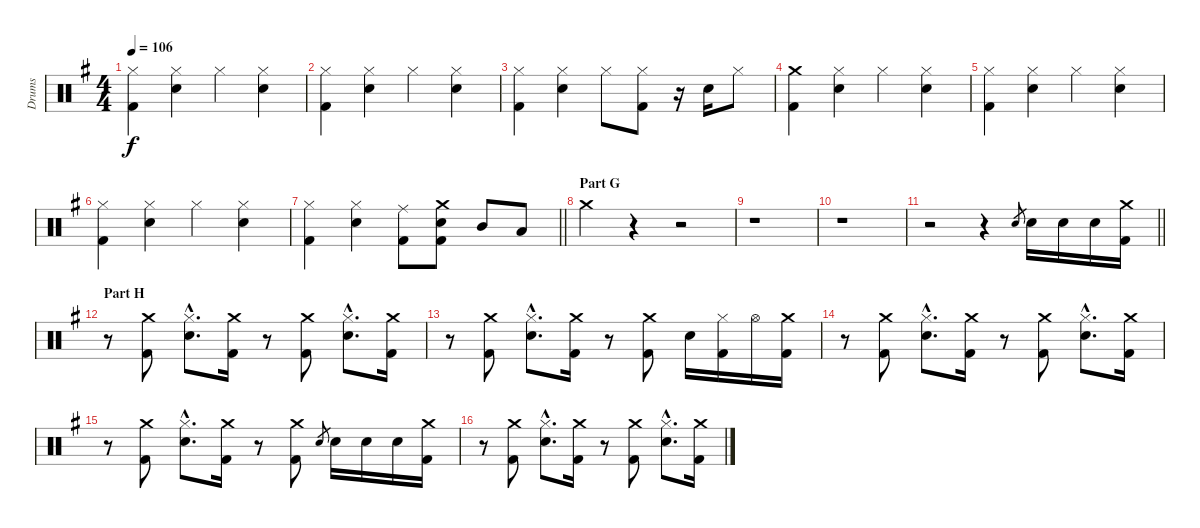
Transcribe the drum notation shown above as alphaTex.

\track ("Drums" "Drums") {instrument percussion}
\staff {score}
\articulation defaults
\ts (4 4)
\tempo 106
\clef neutral
\ks g
("Hi-Hat (closed)" "Kick (hit) 2").4{dy f} ("Hi-Hat (closed)" "Electric Snare (hit)").4 "Hi-Hat (closed)".4 ("Hi-Hat (closed)" "Electric Snare (hit)").4 |
("Hi-Hat (closed)" "Kick (hit) 2").4 ("Hi-Hat (closed)" "Electric Snare (hit)").4 "Hi-Hat (closed)".4 ("Hi-Hat (closed)" "Electric Snare (hit)").4 |
("Hi-Hat (closed)" "Kick (hit) 2").4 ("Hi-Hat (closed)" "Electric Snare (hit)").4 "Hi-Hat (closed)".8 ("Hi-Hat (closed)" "Kick (hit) 2").8 r.16 "Electric Snare (hit)".16 "Hi-Hat (closed)".8 |
("Crash medium (hit)" "Kick (hit) 2").4 ("Hi-Hat (closed)" "Electric Snare (hit)").4 "Hi-Hat (closed)".4 ("Hi-Hat (closed)" "Electric Snare (hit)").4 |
("Hi-Hat (closed)" "Kick (hit) 2").4 ("Hi-Hat (closed)" "Electric Snare (hit)").4 "Hi-Hat (closed)".4 ("Hi-Hat (closed)" "Electric Snare (hit)").4 |
("Hi-Hat (closed)" "Kick (hit) 2").4 ("Hi-Hat (closed)" "Electric Snare (hit)").4 "Hi-Hat (closed)".4 ("Hi-Hat (closed)" "Electric Snare (hit)").4 |
\barLineRight lightlight
("Hi-Hat (closed)" "Kick (hit) 2").4 ("Hi-Hat (closed)" "Electric Snare (hit)").4 ("Ride (middle)" "Kick (hit) 2").8 ("Crash medium (hit)" "Electric Snare (hit)" "Kick (hit) 2").8 "Mid Tom (hit)".8 "Low Tom (hit)".8 |
\section ("" "Part G")
"Crash medium (hit)".4 r.4 r.2 |
r.1 |
r.1 |
\barLineRight lightlight
r.2 r.4 "Electric Snare (hit)".8{gr} "Electric Snare (hit)".16 "Electric Snare (hit)".16 "Electric Snare (hit)".16 ("Crash medium (hit)" "Kick (hit) 2").16 |
\section ("" "Part H")
r.8 ("Crash medium (hit)" "Kick (hit) 2").8 ("Hi-Hat (closed)"{hac} "Electric Snare (hit)"{hac}).8{d} ("Crash medium (hit)" "Kick (hit) 2").16 r.8 ("Crash medium (hit)" "Kick (hit) 2").8 ("Hi-Hat (closed)"{hac} "Electric Snare (hit)"{hac}).8{d} ("Crash medium (hit)" "Kick (hit) 2").16 |
r.8 ("Crash medium (hit)" "Kick (hit) 2").8 ("Hi-Hat (closed)"{hac} "Electric Snare (hit)"{hac}).8{d} ("Crash medium (hit)" "Kick (hit) 2").16 r.8 ("Crash medium (hit)" "Kick (hit) 2").8 "Electric Snare (hit)".16 ("Hi-Hat (closed)" "Kick (hit) 2").16 "Hi-Hat (open)".16 ("Crash medium (hit)" "Kick (hit) 2").16 |
r.8 ("Crash medium (hit)" "Kick (hit) 2").8 ("Hi-Hat (closed)"{hac} "Electric Snare (hit)"{hac}).8{d} ("Crash medium (hit)" "Kick (hit) 2").16 r.8 ("Crash medium (hit)" "Kick (hit) 2").8 ("Hi-Hat (closed)"{hac} "Electric Snare (hit)"{hac}).8{d} ("Crash medium (hit)" "Kick (hit) 2").16 |
r.8 ("Crash medium (hit)" "Kick (hit) 2").8 ("Hi-Hat (closed)"{hac} "Electric Snare (hit)"{hac}).8{d} ("Crash medium (hit)" "Kick (hit) 2").16 r.8 ("Crash medium (hit)" "Kick (hit) 2").8 "Electric Snare (hit)".8{gr} "Electric Snare (hit)".16 "Electric Snare (hit)".16 "Electric Snare (hit)".16 ("Crash medium (hit)" "Kick (hit) 2").16 |
r.8 ("Crash medium (hit)" "Kick (hit) 2").8 ("Hi-Hat (closed)"{hac} "Electric Snare (hit)"{hac}).8{d} ("Crash medium (hit)" "Kick (hit) 2").16 r.8 ("Crash medium (hit)" "Kick (hit) 2").8 ("Hi-Hat (closed)"{hac} "Electric Snare (hit)"{hac}).8{d} ("Crash medium (hit)" "Kick (hit) 2").16
